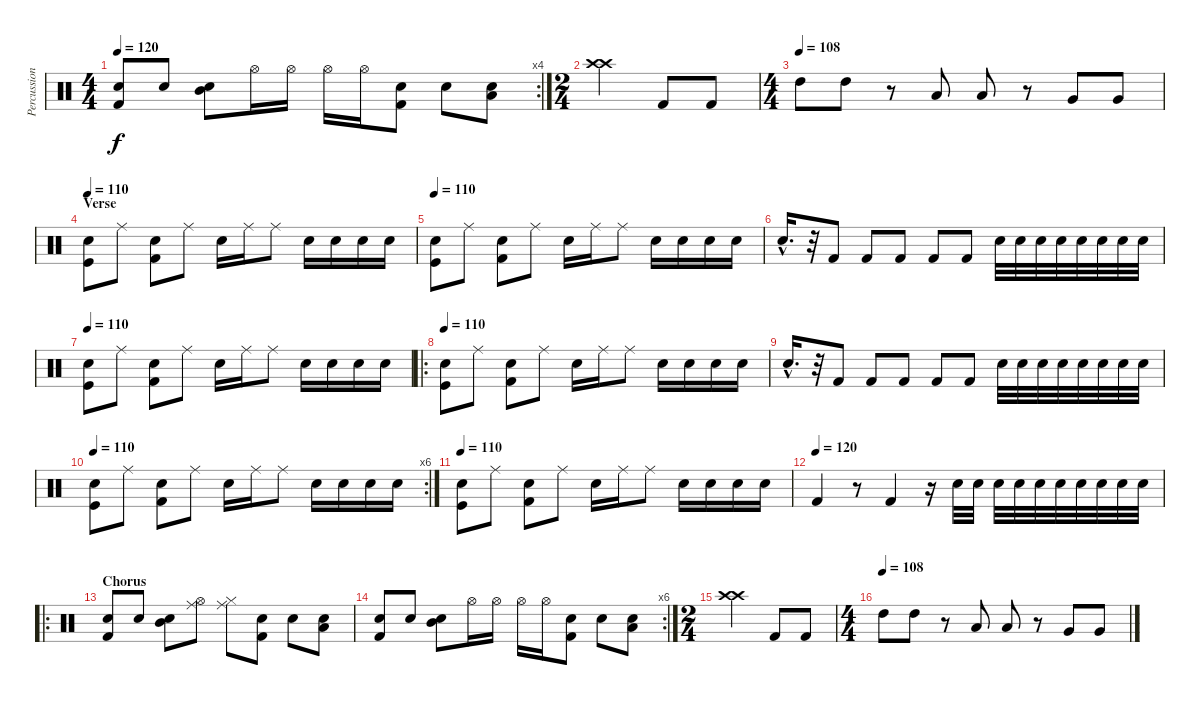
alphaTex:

\track ("Percussions" "Percussion") {instrument percussion}
\staff {score}
\articulation defaults
\rc 4
\ts (4 4)
\tempo 120
\clef neutral
\ks c
("Snare (hit) 2" "Kick (hit) 2").8{dy f} "Snare (hit) 2".8 ("Snare (hit) 2" "Mid Tom (hit)").8 "Hi-Hat (open)".16 "Hi-Hat (open)".16 "Hi-Hat (open)".16 "Hi-Hat (open)".16 ("Snare (hit) 2" "Kick (hit) 2").8 "Snare (hit) 2".8 ("Snare (hit) 2" "Low Tom (hit)").8 |
\ts (2 4)
("Crash high (hit)" "Crash high (hit)").4 "Kick (hit) 2".8 "Kick (hit) 2".8 |
\ts (4 4)
\tempo (108)
"High Tom (hit)".8 "High Tom (hit)".8 r.8 "Low Tom (hit)".8 "Low Tom (hit)".8 r.8 "Very Low Tom (hit)".8 "Very Low Tom (hit)".8 |
\section ("" "Verse")
\tempo 110
("Snare (hit) 2" "Kick (hit)").8 "Ride (middle)".8 ("Snare (hit) 2" "Kick (hit) 2").8 "Ride (middle)".8 "Snare (hit) 2".16 "Ride (middle)".16 "Ride (middle)".8 "Snare (hit) 2".16 "Snare (hit) 2".16 "Snare (hit) 2".16 "Snare (hit) 2".16 |
\tempo 110
("Snare (hit) 2" "Kick (hit)").8 "Ride (middle)".8 ("Snare (hit) 2" "Kick (hit) 2").8 "Ride (middle)".8 "Snare (hit) 2".16 "Ride (middle)".16 "Ride (middle)".8 "Snare (hit) 2".16 "Snare (hit) 2".16 "Snare (hit) 2".16 "Snare (hit) 2".16 |
"Snare (hit) 2"{hac}.16{d} r.32 "Kick (hit) 2".8 "Kick (hit) 2".8 "Kick (hit) 2".8 "Kick (hit) 2".8 "Kick (hit) 2".8 "Snare (hit) 2".32 "Snare (hit) 2".32 "Snare (hit) 2".32 "Snare (hit) 2".32 "Snare (hit) 2".32 "Snare (hit) 2".32 "Snare (hit) 2".32 "Snare (hit) 2".32 |
\tempo 110
("Snare (hit) 2" "Kick (hit)").8 "Ride (middle)".8 ("Snare (hit) 2" "Kick (hit) 2").8 "Ride (middle)".8 "Snare (hit) 2".16 "Ride (middle)".16 "Ride (middle)".8 "Snare (hit) 2".16 "Snare (hit) 2".16 "Snare (hit) 2".16 "Snare (hit) 2".16 |
\ro
\tempo 110
("Snare (hit) 2" "Kick (hit)").8 "Ride (middle)".8 ("Snare (hit) 2" "Kick (hit) 2").8 "Ride (middle)".8 "Snare (hit) 2".16 "Ride (middle)".16 "Ride (middle)".8 "Snare (hit) 2".16 "Snare (hit) 2".16 "Snare (hit) 2".16 "Snare (hit) 2".16 |
"Snare (hit) 2"{hac}.16{d} r.32 "Kick (hit) 2".8 "Kick (hit) 2".8 "Kick (hit) 2".8 "Kick (hit) 2".8 "Kick (hit) 2".8 "Snare (hit) 2".32 "Snare (hit) 2".32 "Snare (hit) 2".32 "Snare (hit) 2".32 "Snare (hit) 2".32 "Snare (hit) 2".32 "Snare (hit) 2".32 "Snare (hit) 2".32 |
\rc 6
\tempo 110
("Snare (hit) 2" "Kick (hit)").8 "Ride (middle)".8 ("Snare (hit) 2" "Kick (hit) 2").8 "Ride (middle)".8 "Snare (hit) 2".16 "Ride (middle)".16 "Ride (middle)".8 "Snare (hit) 2".16 "Snare (hit) 2".16 "Snare (hit) 2".16 "Snare (hit) 2".16 |
\tempo 110
("Snare (hit) 2" "Kick (hit)").8 "Ride (middle)".8 ("Snare (hit) 2" "Kick (hit) 2").8 "Ride (middle)".8 "Snare (hit) 2".16 "Ride (middle)".16 "Ride (middle)".8 "Snare (hit) 2".16 "Snare (hit) 2".16 "Snare (hit) 2".16 "Snare (hit) 2".16 |
\tempo (120)
"Kick (hit) 2".4 r.8 "Kick (hit) 2".4 r.16 "Snare (hit) 2".32 "Electric Snare (hit)".32 "Snare (hit) 2".32 "Electric Snare (hit)".32 "Snare (hit) 2".32 "Electric Snare (hit)".32 "Snare (hit) 2".32 "Electric Snare (hit)".32 "Snare (hit) 2".32 "Electric Snare (hit)".32 |
\ro
\section ("" "Chorus")
("Snare (hit) 2" "Kick (hit) 2").8 "Snare (hit) 2".8 ("Snare (hit) 2" "Mid Tom (hit)").8 ("Hi-Hat (open)" "Ride (middle)").8 ("Hi-Hat (closed)" "Ride (middle)").8 ("Snare (hit) 2" "Kick (hit) 2").8 "Snare (hit) 2".8 ("Snare (hit) 2" "Low Tom (hit)").8 |
\rc 6
("Snare (hit) 2" "Kick (hit) 2").8 "Snare (hit) 2".8 ("Snare (hit) 2" "Mid Tom (hit)").8 "Hi-Hat (open)".16 "Hi-Hat (open)".16 "Hi-Hat (open)".16 "Hi-Hat (open)".16 ("Snare (hit) 2" "Kick (hit) 2").8 "Snare (hit) 2".8 ("Snare (hit) 2" "Low Tom (hit)").8 |
\ts (2 4)
("Crash high (hit)" "Crash high (hit)").4 "Kick (hit) 2".8 "Kick (hit) 2".8 |
\ts (4 4)
\tempo (108)
"High Tom (hit)".8 "High Tom (hit)".8 r.8 "Low Tom (hit)".8 "Low Tom (hit)".8 r.8 "Very Low Tom (hit)".8 "Very Low Tom (hit)".8
